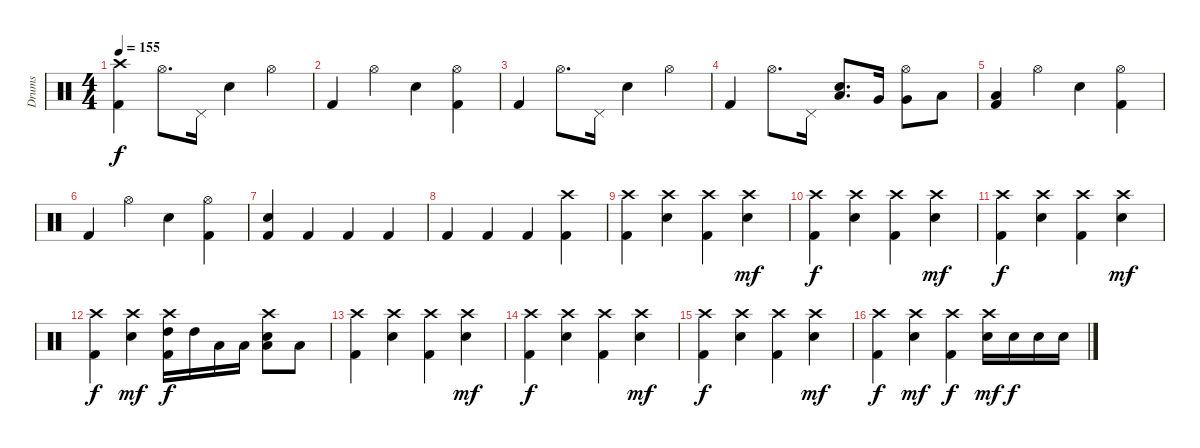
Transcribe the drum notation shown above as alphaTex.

\track ("Drums" "Drums") {instrument percussion}
\staff {score}
\articulation defaults
\ts (4 4)
\tempo 155
\clef neutral
\ks c
("Crash high (hit)" "Kick (hit) 2").4{dy f} "Hi-Hat (open)".8{d} "Pedal Hi-Hat (hit)".16 "Electric Snare (hit)".4 "Hi-Hat (open)".4 |
"Kick (hit) 2".4 "Hi-Hat (open)".4 "Electric Snare (hit)".4 ("Hi-Hat (open)" "Kick (hit) 2").4 |
"Kick (hit) 2".4 "Hi-Hat (open)".8{d} "Pedal Hi-Hat (hit)".16 "Electric Snare (hit)".4 "Hi-Hat (open)".4 |
"Kick (hit) 2".4 "Hi-Hat (open)".8{d} "Pedal Hi-Hat (hit)".16 ("Low Tom (hit)" "Electric Snare (hit)").8{d} "Very Low Tom (hit)".16 ("Hi-Hat (open)" "Very Low Tom (hit)").8 "Low Floor Tom (hit)".8 |
("Low Floor Tom (hit)" "Kick (hit) 2").4 "Hi-Hat (open)".4 "Electric Snare (hit)".4 ("Hi-Hat (open)" "Kick (hit) 2").4 |
"Kick (hit) 2".4 "Hi-Hat (open)".4 "Electric Snare (hit)".4 ("Hi-Hat (open)" "Kick (hit) 2").4 |
("Electric Snare (hit)" "Kick (hit) 2").4 "Kick (hit) 2".4 "Kick (hit) 2".4 "Kick (hit) 2".4 |
"Kick (hit) 2".4 "Kick (hit) 2".4 "Kick (hit) 2".4 ("Crash high (hit)" "Kick (hit) 2").4 |
("Crash high (hit)" "Kick (hit) 2").4 ("Crash high (hit)" "Electric Snare (hit)").4 ("Crash high (hit)" "Kick (hit) 2").4 ("Crash high (hit)" "Electric Snare (hit)").4{dy mf} |
("Crash high (hit)" "Kick (hit) 2").4{dy f} ("Crash high (hit)" "Electric Snare (hit)").4 ("Crash high (hit)" "Kick (hit) 2").4 ("Crash high (hit)" "Electric Snare (hit)").4{dy mf} |
("Crash high (hit)" "Kick (hit) 2").4{dy f} ("Crash high (hit)" "Electric Snare (hit)").4 ("Crash high (hit)" "Kick (hit) 2").4 ("Crash high (hit)" "Electric Snare (hit)").4{dy mf} |
("Crash high (hit)" "Kick (hit) 2").4{dy f} ("Crash high (hit)" "Electric Snare (hit)").4{dy mf} ("Crash high (hit)" "High Tom (hit)" "Kick (hit) 2").16{dy f} "High Tom (hit)".16 "Low Tom (hit)".16 "Low Tom (hit)".16 ("Crash high (hit)" "Low Floor Tom (hit)" "Electric Snare (hit)").8 "Low Floor Tom (hit)".8 |
("Crash high (hit)" "Kick (hit) 2").4 ("Crash high (hit)" "Electric Snare (hit)").4 ("Crash high (hit)" "Kick (hit) 2").4 ("Crash high (hit)" "Electric Snare (hit)").4{dy mf} |
("Crash high (hit)" "Kick (hit) 2").4{dy f} ("Crash high (hit)" "Electric Snare (hit)").4 ("Crash high (hit)" "Kick (hit) 2").4 ("Crash high (hit)" "Electric Snare (hit)").4{dy mf} |
("Crash high (hit)" "Kick (hit) 2").4{dy f} ("Crash high (hit)" "Electric Snare (hit)").4 ("Crash high (hit)" "Kick (hit) 2").4 ("Crash high (hit)" "Electric Snare (hit)").4{dy mf} |
("Crash high (hit)" "Kick (hit) 2").4{dy f} ("Crash high (hit)" "Electric Snare (hit)").4{dy mf} ("Crash high (hit)" "Kick (hit) 2").4{dy f} ("Crash high (hit)" "Electric Snare (hit)").16{dy mf} "Electric Snare (hit)".16{dy f} "Electric Snare (hit)".16 "Electric Snare (hit)".16
